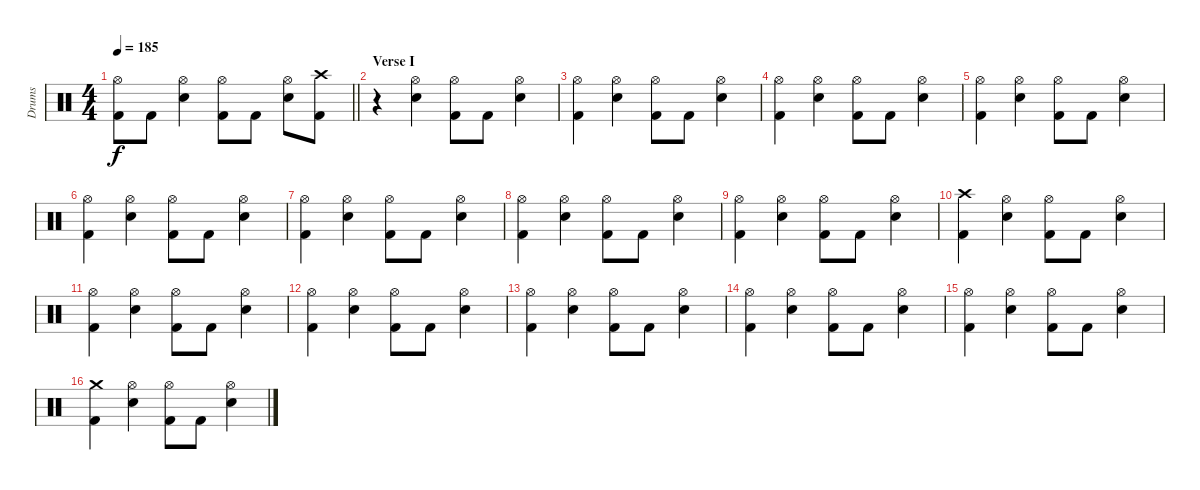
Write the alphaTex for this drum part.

\track ("Drums" "Drums") {instrument percussion}
\staff {score}
\articulation defaults
\ts (4 4)
\tempo 185
\clef neutral
\barLineRight lightlight
\ks c
("Hi-Hat (open)" "Kick (hit) 2").8{dy f} "Kick (hit) 2".8 ("Hi-Hat (open)" "Snare (hit) 2").4 ("Hi-Hat (open)" "Kick (hit) 2").8 "Kick (hit) 2".8 ("Hi-Hat (open)" "Snare (hit) 2").8 ("Crash high (hit)" "Kick (hit) 2").8 |
\section ("" "Verse I")
r.4 ("Hi-Hat (open)" "Snare (hit) 2").4 ("Hi-Hat (open)" "Kick (hit) 2").8 "Kick (hit) 2".8 ("Hi-Hat (open)" "Snare (hit) 2").4 |
("Hi-Hat (open)" "Kick (hit) 2").4 ("Hi-Hat (open)" "Snare (hit) 2").4 ("Hi-Hat (open)" "Kick (hit) 2").8 "Kick (hit) 2".8 ("Hi-Hat (open)" "Snare (hit) 2").4 |
("Hi-Hat (open)" "Kick (hit) 2").4 ("Hi-Hat (open)" "Snare (hit) 2").4 ("Hi-Hat (open)" "Kick (hit) 2").8 "Kick (hit) 2".8 ("Hi-Hat (open)" "Snare (hit) 2").4 |
("Hi-Hat (open)" "Kick (hit) 2").4 ("Hi-Hat (open)" "Snare (hit) 2").4 ("Hi-Hat (open)" "Kick (hit) 2").8 "Kick (hit) 2".8 ("Hi-Hat (open)" "Snare (hit) 2").4 |
("Hi-Hat (open)" "Kick (hit) 2").4 ("Hi-Hat (open)" "Snare (hit) 2").4 ("Hi-Hat (open)" "Kick (hit) 2").8 "Kick (hit) 2".8 ("Hi-Hat (open)" "Snare (hit) 2").4 |
("Hi-Hat (open)" "Kick (hit) 2").4 ("Hi-Hat (open)" "Snare (hit) 2").4 ("Hi-Hat (open)" "Kick (hit) 2").8 "Kick (hit) 2".8 ("Hi-Hat (open)" "Snare (hit) 2").4 |
("Hi-Hat (open)" "Kick (hit) 2").4 ("Hi-Hat (open)" "Snare (hit) 2").4 ("Hi-Hat (open)" "Kick (hit) 2").8 "Kick (hit) 2".8 ("Hi-Hat (open)" "Snare (hit) 2").4 |
("Hi-Hat (open)" "Kick (hit) 2").4 ("Hi-Hat (open)" "Snare (hit) 2").4 ("Hi-Hat (open)" "Kick (hit) 2").8 "Kick (hit) 2".8 ("Hi-Hat (open)" "Snare (hit) 2").4 |
("Crash high (hit)" "Kick (hit) 2").4 ("Hi-Hat (open)" "Snare (hit) 2").4 ("Hi-Hat (open)" "Kick (hit) 2").8 "Kick (hit) 2".8 ("Hi-Hat (open)" "Snare (hit) 2").4 |
("Hi-Hat (open)" "Kick (hit) 2").4 ("Hi-Hat (open)" "Snare (hit) 2").4 ("Hi-Hat (open)" "Kick (hit) 2").8 "Kick (hit) 2".8 ("Hi-Hat (open)" "Snare (hit) 2").4 |
("Hi-Hat (open)" "Kick (hit) 2").4 ("Hi-Hat (open)" "Snare (hit) 2").4 ("Hi-Hat (open)" "Kick (hit) 2").8 "Kick (hit) 2".8 ("Hi-Hat (open)" "Snare (hit) 2").4 |
("Hi-Hat (open)" "Kick (hit) 2").4 ("Hi-Hat (open)" "Snare (hit) 2").4 ("Hi-Hat (open)" "Kick (hit) 2").8 "Kick (hit) 2".8 ("Hi-Hat (open)" "Snare (hit) 2").4 |
("Hi-Hat (open)" "Kick (hit) 2").4 ("Hi-Hat (open)" "Snare (hit) 2").4 ("Hi-Hat (open)" "Kick (hit) 2").8 "Kick (hit) 2".8 ("Hi-Hat (open)" "Snare (hit) 2").4 |
("Hi-Hat (open)" "Kick (hit) 2").4 ("Hi-Hat (open)" "Snare (hit) 2").4 ("Hi-Hat (open)" "Kick (hit) 2").8 "Kick (hit) 2".8 ("Hi-Hat (open)" "Snare (hit) 2").4 |
("Crash medium (hit)" "Kick (hit) 2").4 ("Hi-Hat (open)" "Snare (hit) 2").4 ("Hi-Hat (open)" "Kick (hit) 2").8 "Kick (hit) 2".8 ("Hi-Hat (open)" "Snare (hit) 2").4
